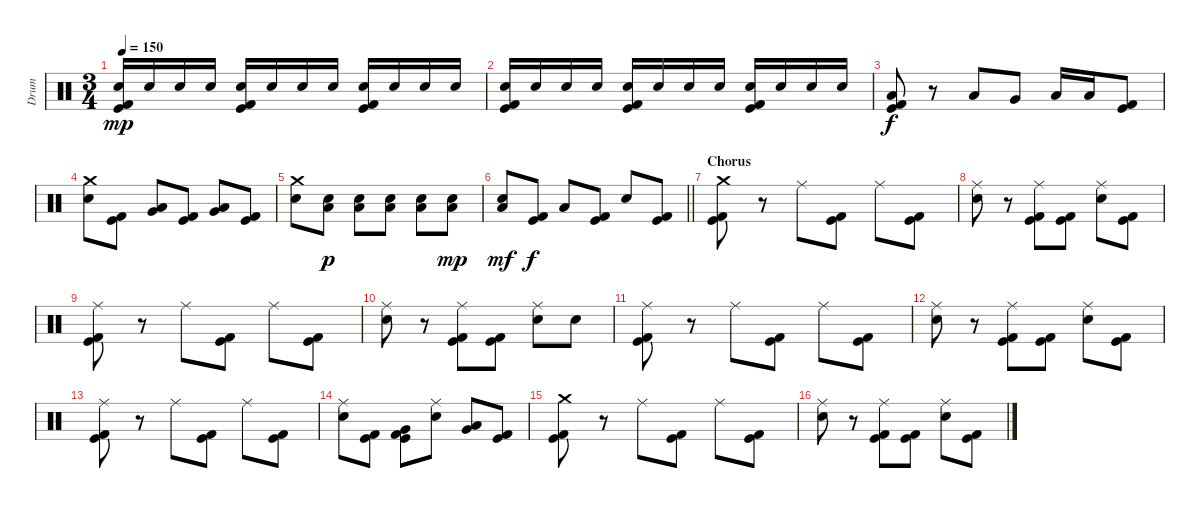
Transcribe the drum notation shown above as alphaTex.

\track ("Drum" "Drum") {instrument percussion}
\staff {score}
\articulation defaults
\ts (3 4)
\tempo 150
\clef neutral
\ks c
("Electric Snare (hit)" "Kick (hit)" "Kick (hit) 2").16{dy mp} "Electric Snare (hit)".16 "Electric Snare (hit)".16 "Electric Snare (hit)".16 ("Electric Snare (hit)" "Kick (hit)" "Kick (hit) 2").16 "Electric Snare (hit)".16 "Electric Snare (hit)".16 "Electric Snare (hit)".16 ("Electric Snare (hit)" "Kick (hit)" "Kick (hit) 2").16 "Electric Snare (hit)".16 "Electric Snare (hit)".16 "Electric Snare (hit)".16 |
("Electric Snare (hit)" "Kick (hit)" "Kick (hit) 2").16 "Electric Snare (hit)".16 "Electric Snare (hit)".16 "Electric Snare (hit)".16 ("Electric Snare (hit)" "Kick (hit)" "Kick (hit) 2").16 "Electric Snare (hit)".16 "Electric Snare (hit)".16 "Electric Snare (hit)".16 ("Electric Snare (hit)" "Kick (hit)" "Kick (hit) 2").16 "Electric Snare (hit)".16 "Electric Snare (hit)".16 "Electric Snare (hit)".16 |
("Low Tom (hit)" "Kick (hit)" "Kick (hit) 2").8{dy f} r.8 "Low Tom (hit)".8 "Very Low Tom (hit)".8 "Low Floor Tom (hit)".16 "Low Floor Tom (hit)".16 ("Kick (hit)" "Kick (hit) 2").8 |
("Crash medium (hit)" "Electric Snare (hit)").8 ("Kick (hit)" "Kick (hit) 2").8 ("Low Tom (hit)" "Very Low Tom (hit)").8 ("Kick (hit)" "Kick (hit) 2").8 ("Very Low Tom (hit)" "Low Floor Tom (hit)").8 ("Kick (hit)" "Kick (hit) 2").8 |
("Crash medium (hit)" "Electric Snare (hit)").8 ("Low Floor Tom (hit)" "Electric Snare (hit)").8{dy p} ("Low Floor Tom (hit)" "Electric Snare (hit)").8 ("Low Floor Tom (hit)" "Electric Snare (hit)").8 ("Low Floor Tom (hit)" "Electric Snare (hit)").8 ("Low Floor Tom (hit)" "Electric Snare (hit)").8{dy mp} |
\barLineRight lightlight
("Low Floor Tom (hit)" "Electric Snare (hit)").8{dy mf} ("Kick (hit)" "Kick (hit) 2").8{dy f} "Low Floor Tom (hit)".8 ("Kick (hit)" "Kick (hit) 2").8 "Electric Snare (hit)".8 ("Kick (hit)" "Kick (hit) 2").8 |
\section ("" "Chorus")
("Crash medium (hit)" "Kick (hit)" "Kick (hit) 2").8 r.8 "Ride (middle)".8 ("Kick (hit)" "Kick (hit) 2").8 "Ride (middle)".8 ("Kick (hit)" "Kick (hit) 2").8 |
("Ride (middle)" "Electric Snare (hit)").8 r.8 ("Ride (middle)" "Kick (hit)" "Kick (hit) 2").8 ("Kick (hit)" "Kick (hit) 2").8 ("Ride (middle)" "Electric Snare (hit)").8 ("Kick (hit)" "Kick (hit) 2").8 |
("Ride (middle)" "Kick (hit)" "Kick (hit) 2").8 r.8 "Ride (middle)".8 ("Kick (hit)" "Kick (hit) 2").8 "Ride (middle)".8 ("Kick (hit)" "Kick (hit) 2").8 |
("Ride (middle)" "Electric Snare (hit)").8 r.8 ("Ride (middle)" "Kick (hit)" "Kick (hit) 2").8 ("Kick (hit)" "Kick (hit) 2").8 ("Ride (middle)" "Electric Snare (hit)").8 "Electric Snare (hit)".8 |
("Ride (middle)" "Kick (hit)" "Kick (hit) 2").8 r.8 "Ride (middle)".8 ("Kick (hit)" "Kick (hit) 2").8 "Ride (middle)".8 ("Kick (hit)" "Kick (hit) 2").8 |
("Ride (middle)" "Electric Snare (hit)").8 r.8 ("Ride (middle)" "Kick (hit)" "Kick (hit) 2").8 ("Kick (hit)" "Kick (hit) 2").8 ("Ride (middle)" "Electric Snare (hit)").8 ("Kick (hit)" "Kick (hit) 2").8 |
("Ride (middle)" "Kick (hit)" "Kick (hit) 2").8 r.8 "Ride (middle)".8 ("Kick (hit)" "Kick (hit) 2").8 "Ride (middle)".8 ("Kick (hit)" "Kick (hit) 2").8 |
("Ride (middle)" "Electric Snare (hit)").8 ("Kick (hit)" "Kick (hit) 2").8 ("Very Low Tom (hit)" "Kick (hit)" "Kick (hit) 2").8 ("Ride (middle)" "Electric Snare (hit)").8 ("Very Low Tom (hit)" "Low Tom (hit)").8 ("Kick (hit)" "Kick (hit) 2").8 |
("Crash medium (hit)" "Kick (hit)" "Kick (hit) 2").8 r.8 "Ride (middle)".8 ("Kick (hit)" "Kick (hit) 2").8 "Ride (middle)".8 ("Kick (hit)" "Kick (hit) 2").8 |
("Ride (middle)" "Electric Snare (hit)").8 r.8 ("Ride (middle)" "Kick (hit)" "Kick (hit) 2").8 ("Kick (hit)" "Kick (hit) 2").8 ("Ride (middle)" "Electric Snare (hit)").8 ("Kick (hit)" "Kick (hit) 2").8
